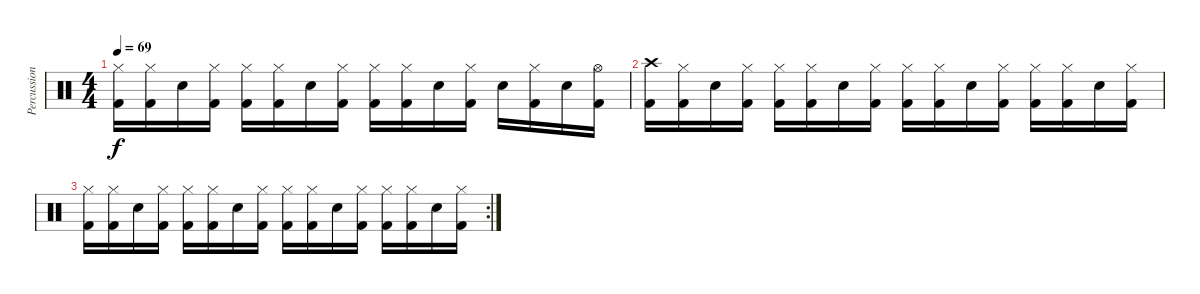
\track ("Percussion" "Percussion") {instrument percussion}
\staff {score}
\articulation defaults
\ts (4 4)
\tempo 69
\clef neutral
\ks c
("Hi-Hat (closed)" "Kick (hit) 2").16{dy f} ("Hi-Hat (closed)" "Kick (hit) 2").16 "Electric Snare (hit)".16 ("Hi-Hat (closed)" "Kick (hit) 2").16 ("Hi-Hat (closed)" "Kick (hit) 2").16 ("Hi-Hat (closed)" "Kick (hit) 2").16 "Electric Snare (hit)".16 ("Hi-Hat (closed)" "Kick (hit) 2").16 ("Hi-Hat (closed)" "Kick (hit) 2").16 ("Hi-Hat (closed)" "Kick (hit) 2").16 "Electric Snare (hit)".16 ("Hi-Hat (closed)" "Kick (hit) 2").16 "Electric Snare (hit)".16 ("Hi-Hat (closed)" "Kick (hit) 2").16 "Electric Snare (hit)".16 ("Hi-Hat (open)" "Kick (hit) 2").16 |
("Crash high (hit)" "Kick (hit) 2").16 ("Hi-Hat (closed)" "Kick (hit) 2").16 "Electric Snare (hit)".16 ("Hi-Hat (closed)" "Kick (hit) 2").16 ("Hi-Hat (closed)" "Kick (hit) 2").16 ("Hi-Hat (closed)" "Kick (hit) 2").16 "Electric Snare (hit)".16 ("Hi-Hat (closed)" "Kick (hit) 2").16 ("Hi-Hat (closed)" "Kick (hit) 2").16 ("Hi-Hat (closed)" "Kick (hit) 2").16 "Electric Snare (hit)".16 ("Hi-Hat (closed)" "Kick (hit) 2").16 ("Hi-Hat (closed)" "Kick (hit) 2").16 ("Hi-Hat (closed)" "Kick (hit) 2").16 "Electric Snare (hit)".16 ("Hi-Hat (closed)" "Kick (hit) 2").16 |
\rc 2
("Hi-Hat (closed)" "Kick (hit) 2").16 ("Hi-Hat (closed)" "Kick (hit) 2").16 "Electric Snare (hit)".16 ("Hi-Hat (closed)" "Kick (hit) 2").16 ("Hi-Hat (closed)" "Kick (hit) 2").16 ("Hi-Hat (closed)" "Kick (hit) 2").16 "Electric Snare (hit)".16 ("Hi-Hat (closed)" "Kick (hit) 2").16 ("Hi-Hat (closed)" "Kick (hit) 2").16 ("Hi-Hat (closed)" "Kick (hit) 2").16 "Electric Snare (hit)".16 ("Hi-Hat (closed)" "Kick (hit) 2").16 ("Hi-Hat (closed)" "Kick (hit) 2").16 ("Hi-Hat (closed)" "Kick (hit) 2").16 "Electric Snare (hit)".16 ("Hi-Hat (closed)" "Kick (hit) 2").16
